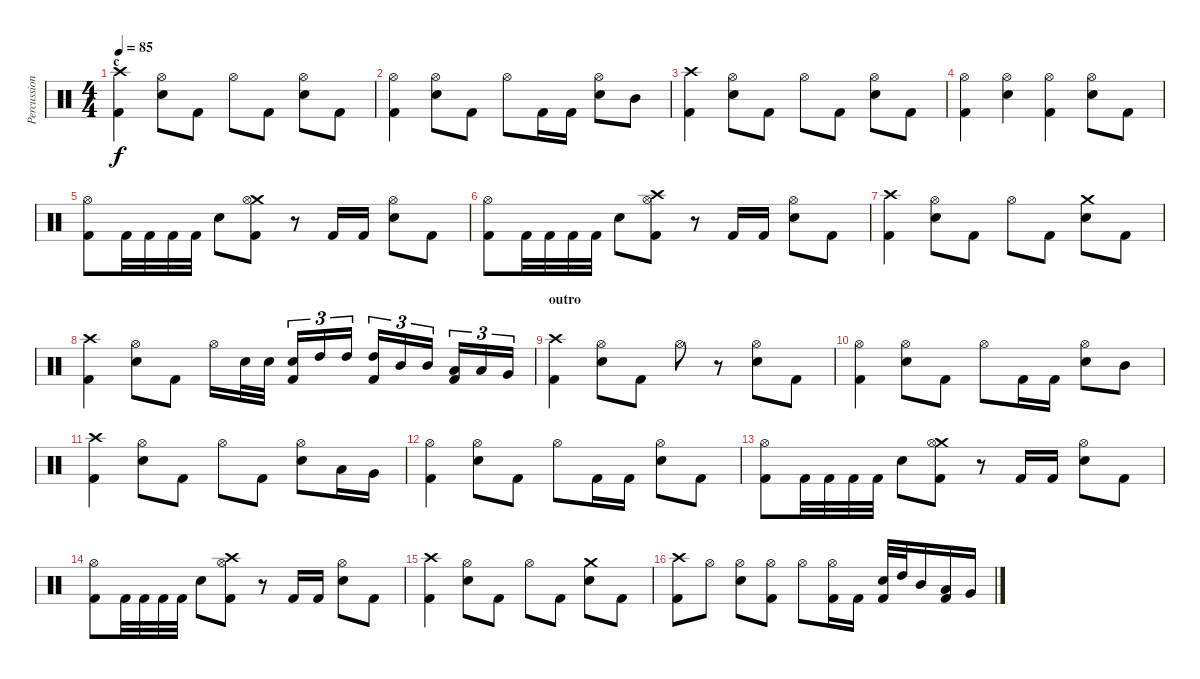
\track ("Percussion" "Percussion") {instrument percussion}
\staff {score}
\articulation defaults
\ts (4 4)
\section ("" "c")
\tempo 85
\clef neutral
\ks c
("Crash high (hit)" "Kick (hit) 2").4{dy f} ("Hi-Hat (open)" "Snare (hit) 2").8 "Kick (hit) 2".8 "Hi-Hat (open)".8 "Kick (hit) 2".8 ("Hi-Hat (open)" "Snare (hit) 2").8 "Kick (hit) 2".8 |
("Hi-Hat (open)" "Kick (hit) 2").4 ("Hi-Hat (open)" "Snare (hit) 2").8 "Kick (hit) 2".8 "Hi-Hat (open)".8 "Kick (hit) 2".16 "Kick (hit) 2".16 ("Hi-Hat (open)" "Snare (hit) 2").8 "Mid Tom (hit)".8 |
("Crash high (hit)" "Kick (hit) 2").4 ("Hi-Hat (open)" "Snare (hit) 2").8 "Kick (hit) 2".8 "Hi-Hat (open)".8 "Kick (hit) 2".8 ("Hi-Hat (open)" "Snare (hit) 2").8 "Kick (hit) 2".8 |
("Hi-Hat (open)" "Kick (hit) 2").4 ("Hi-Hat (open)" "Snare (hit) 2").4 ("Hi-Hat (open)" "Kick (hit) 2").4 ("Hi-Hat (open)" "Snare (hit) 2").8 "Kick (hit) 2".8 |
("Hi-Hat (open)" "Kick (hit) 2").8 "Kick (hit) 2".32 "Kick (hit) 2".32 "Kick (hit) 2".32 "Kick (hit) 2".32 "Snare (hit) 2".8 ("Crash medium (hit)" "Hi-Hat (open)" "Kick (hit) 2").8 r.8 "Kick (hit) 2".16 "Kick (hit) 2".16 ("Hi-Hat (open)" "Snare (hit) 2").8 "Kick (hit) 2".8 |
("Hi-Hat (open)" "Kick (hit) 2").8 "Kick (hit) 2".32 "Kick (hit) 2".32 "Kick (hit) 2".32 "Kick (hit) 2".32 "Snare (hit) 2".8 ("Crash high (hit)" "Hi-Hat (open)" "Kick (hit) 2").8 r.8 "Kick (hit) 2".16 "Kick (hit) 2".16 ("Hi-Hat (open)" "Snare (hit) 2").8 "Kick (hit) 2".8 |
("Crash high (hit)" "Kick (hit) 2").4 ("Hi-Hat (open)" "Snare (hit) 2").8 "Kick (hit) 2".8 "Hi-Hat (open)".8 "Kick (hit) 2".8 ("Crash medium (hit)" "Snare (hit) 2").8 "Kick (hit) 2".8 |
("Crash high (hit)" "Kick (hit) 2").4 ("Hi-Hat (open)" "Snare (hit) 2").8 "Kick (hit) 2".8 "Hi-Hat (open)".16 "Snare (hit) 2".32 "Snare (hit) 2".32 ("Snare (hit) 2" "Kick (hit) 2").16{tu (3 2)} "High Tom (hit)".16{tu (3 2)} "High Tom (hit)".16{tu (3 2)} ("High Tom (hit)" "Kick (hit) 2").16{tu (3 2)} "Mid Tom (hit)".16{tu (3 2)} "Mid Tom (hit)".16{tu (3 2)} ("Low Tom (hit)" "Kick (hit) 2").16{tu (3 2)} "Low Tom (hit)".16{tu (3 2)} "Very Low Tom (hit)".16{tu (3 2)} |
\section ("" "outro")
("Crash high (hit)" "Kick (hit) 2").4 ("Hi-Hat (open)" "Snare (hit) 2").8 "Kick (hit) 2".8 "Hi-Hat (open)".8 r.8 ("Hi-Hat (open)" "Snare (hit) 2").8 "Kick (hit) 2".8 |
("Hi-Hat (open)" "Kick (hit) 2").4 ("Hi-Hat (open)" "Snare (hit) 2").8 "Kick (hit) 2".8 "Hi-Hat (open)".8 "Kick (hit) 2".16 "Kick (hit) 2".16 ("Hi-Hat (open)" "Snare (hit) 2").8 "Mid Tom (hit)".8 |
("Crash high (hit)" "Kick (hit) 2").4 ("Hi-Hat (open)" "Snare (hit) 2").8 "Kick (hit) 2".8 "Hi-Hat (open)".8 "Kick (hit) 2".8 ("Hi-Hat (open)" "Snare (hit) 2").8 "Low Tom (hit)".16 "Very Low Tom (hit)".16 |
("Hi-Hat (open)" "Kick (hit) 2").4 ("Hi-Hat (open)" "Snare (hit) 2").8 "Kick (hit) 2".8 "Hi-Hat (open)".8 "Kick (hit) 2".16 "Kick (hit) 2".16 ("Hi-Hat (open)" "Snare (hit) 2").8 "Kick (hit) 2".8 |
("Hi-Hat (open)" "Kick (hit) 2").8 "Kick (hit) 2".32 "Kick (hit) 2".32 "Kick (hit) 2".32 "Kick (hit) 2".32 "Snare (hit) 2".8 ("Crash medium (hit)" "Hi-Hat (open)" "Kick (hit) 2").8 r.8 "Kick (hit) 2".16 "Kick (hit) 2".16 ("Hi-Hat (open)" "Snare (hit) 2").8 "Kick (hit) 2".8 |
("Hi-Hat (open)" "Kick (hit) 2").8 "Kick (hit) 2".32 "Kick (hit) 2".32 "Kick (hit) 2".32 "Kick (hit) 2".32 "Snare (hit) 2".8 ("Crash high (hit)" "Hi-Hat (open)" "Kick (hit) 2").8 r.8 "Kick (hit) 2".16 "Kick (hit) 2".16 ("Hi-Hat (open)" "Snare (hit) 2").8 "Kick (hit) 2".8 |
("Crash high (hit)" "Kick (hit) 2").4 ("Hi-Hat (open)" "Snare (hit) 2").8 "Kick (hit) 2".8 "Hi-Hat (open)".8 "Kick (hit) 2".8 ("Crash medium (hit)" "Snare (hit) 2").8 "Kick (hit) 2".8 |
("Crash high (hit)" "Kick (hit) 2").8 "Hi-Hat (open)".8 ("Hi-Hat (open)" "Snare (hit) 2").8 ("Hi-Hat (open)" "Kick (hit) 2").8 "Hi-Hat (open)".8 ("Hi-Hat (open)" "Kick (hit) 2").16 "Kick (hit) 2".16 ("Snare (hit) 2" "Kick (hit) 2").32 "High Tom (hit)".32 "Mid Tom (hit)".16 ("Low Tom (hit)" "Kick (hit) 2").16 "Very Low Tom (hit)".16
